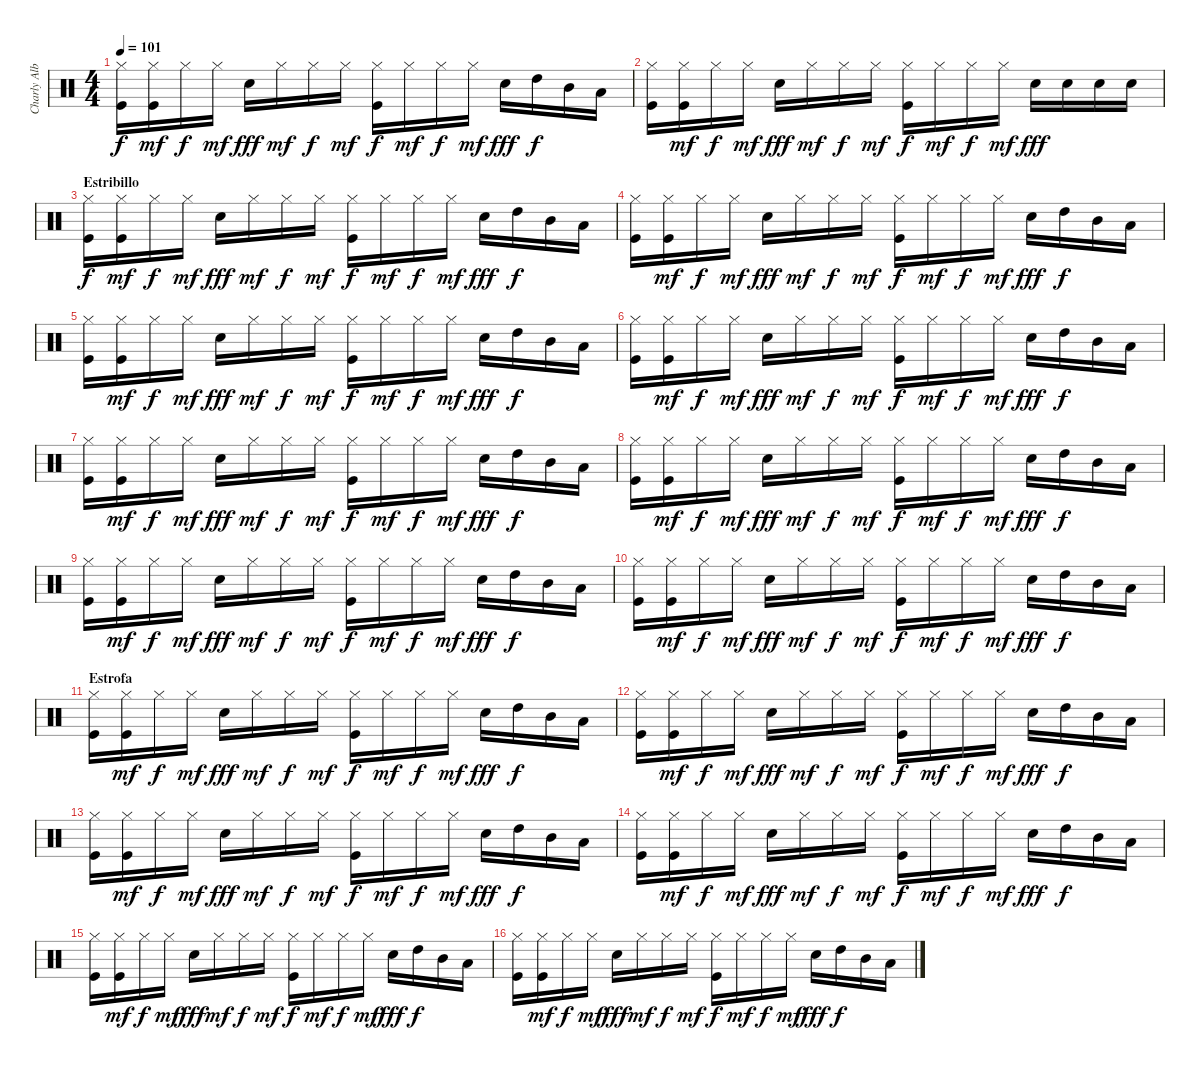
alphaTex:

\track ("Charly Alberti" "Charly Alb") {instrument percussion}
\staff {score}
\articulation defaults
\ts (4 4)
\tempo 101
\clef neutral
\ks c
("Kick (hit)" "Hi-Hat (closed)").16{dy f} ("Kick (hit)" "Hi-Hat (closed)").16{dy mf} "Hi-Hat (closed)".16{dy f} "Hi-Hat (closed)".16{dy mf} "Snare (hit) 2".16{dy fff} "Hi-Hat (closed)".16{dy mf} "Hi-Hat (closed)".16{dy f} "Hi-Hat (closed)".16{dy mf} ("Kick (hit)" "Hi-Hat (closed)").16{dy f} "Hi-Hat (closed)".16{dy mf} "Hi-Hat (closed)".16{dy f} "Hi-Hat (closed)".16{dy mf} "Snare (hit) 2".16{dy fff} "High Tom (hit)".16{dy f} "Mid Tom (hit)".16 "Low Tom (hit)".16 |
("Kick (hit)" "Hi-Hat (closed)").16 ("Kick (hit)" "Hi-Hat (closed)").16{dy mf} "Hi-Hat (closed)".16{dy f} "Hi-Hat (closed)".16{dy mf} "Snare (hit) 2".16{dy fff} "Hi-Hat (closed)".16{dy mf} "Hi-Hat (closed)".16{dy f} "Hi-Hat (closed)".16{dy mf} ("Kick (hit)" "Hi-Hat (closed)").16{dy f} "Hi-Hat (closed)".16{dy mf} "Hi-Hat (closed)".16{dy f} "Hi-Hat (closed)".16{dy mf} "Snare (hit) 2".16{dy fff} "Snare (hit) 2".16 "Snare (hit) 2".16 "Snare (hit) 2".16 |
\section ("" "Estribillo")
("Kick (hit)" "Hi-Hat (closed)").16{dy f} ("Kick (hit)" "Hi-Hat (closed)").16{dy mf} "Hi-Hat (closed)".16{dy f} "Hi-Hat (closed)".16{dy mf} "Snare (hit) 2".16{dy fff} "Hi-Hat (closed)".16{dy mf} "Hi-Hat (closed)".16{dy f} "Hi-Hat (closed)".16{dy mf} ("Kick (hit)" "Hi-Hat (closed)").16{dy f} "Hi-Hat (closed)".16{dy mf} "Hi-Hat (closed)".16{dy f} "Hi-Hat (closed)".16{dy mf} "Snare (hit) 2".16{dy fff} "High Tom (hit)".16{dy f} "Mid Tom (hit)".16 "Low Tom (hit)".16 |
("Kick (hit)" "Hi-Hat (closed)").16 ("Kick (hit)" "Hi-Hat (closed)").16{dy mf} "Hi-Hat (closed)".16{dy f} "Hi-Hat (closed)".16{dy mf} "Snare (hit) 2".16{dy fff} "Hi-Hat (closed)".16{dy mf} "Hi-Hat (closed)".16{dy f} "Hi-Hat (closed)".16{dy mf} ("Kick (hit)" "Hi-Hat (closed)").16{dy f} "Hi-Hat (closed)".16{dy mf} "Hi-Hat (closed)".16{dy f} "Hi-Hat (closed)".16{dy mf} "Snare (hit) 2".16{dy fff} "High Tom (hit)".16{dy f} "Mid Tom (hit)".16 "Low Tom (hit)".16 |
("Kick (hit)" "Hi-Hat (closed)").16 ("Kick (hit)" "Hi-Hat (closed)").16{dy mf} "Hi-Hat (closed)".16{dy f} "Hi-Hat (closed)".16{dy mf} "Snare (hit) 2".16{dy fff} "Hi-Hat (closed)".16{dy mf} "Hi-Hat (closed)".16{dy f} "Hi-Hat (closed)".16{dy mf} ("Kick (hit)" "Hi-Hat (closed)").16{dy f} "Hi-Hat (closed)".16{dy mf} "Hi-Hat (closed)".16{dy f} "Hi-Hat (closed)".16{dy mf} "Snare (hit) 2".16{dy fff} "High Tom (hit)".16{dy f} "Mid Tom (hit)".16 "Low Tom (hit)".16 |
("Kick (hit)" "Hi-Hat (closed)").16 ("Kick (hit)" "Hi-Hat (closed)").16{dy mf} "Hi-Hat (closed)".16{dy f} "Hi-Hat (closed)".16{dy mf} "Snare (hit) 2".16{dy fff} "Hi-Hat (closed)".16{dy mf} "Hi-Hat (closed)".16{dy f} "Hi-Hat (closed)".16{dy mf} ("Kick (hit)" "Hi-Hat (closed)").16{dy f} "Hi-Hat (closed)".16{dy mf} "Hi-Hat (closed)".16{dy f} "Hi-Hat (closed)".16{dy mf} "Snare (hit) 2".16{dy fff} "High Tom (hit)".16{dy f} "Mid Tom (hit)".16 "Low Tom (hit)".16 |
("Kick (hit)" "Hi-Hat (closed)").16 ("Kick (hit)" "Hi-Hat (closed)").16{dy mf} "Hi-Hat (closed)".16{dy f} "Hi-Hat (closed)".16{dy mf} "Snare (hit) 2".16{dy fff} "Hi-Hat (closed)".16{dy mf} "Hi-Hat (closed)".16{dy f} "Hi-Hat (closed)".16{dy mf} ("Kick (hit)" "Hi-Hat (closed)").16{dy f} "Hi-Hat (closed)".16{dy mf} "Hi-Hat (closed)".16{dy f} "Hi-Hat (closed)".16{dy mf} "Snare (hit) 2".16{dy fff} "High Tom (hit)".16{dy f} "Mid Tom (hit)".16 "Low Tom (hit)".16 |
("Kick (hit)" "Hi-Hat (closed)").16 ("Kick (hit)" "Hi-Hat (closed)").16{dy mf} "Hi-Hat (closed)".16{dy f} "Hi-Hat (closed)".16{dy mf} "Snare (hit) 2".16{dy fff} "Hi-Hat (closed)".16{dy mf} "Hi-Hat (closed)".16{dy f} "Hi-Hat (closed)".16{dy mf} ("Kick (hit)" "Hi-Hat (closed)").16{dy f} "Hi-Hat (closed)".16{dy mf} "Hi-Hat (closed)".16{dy f} "Hi-Hat (closed)".16{dy mf} "Snare (hit) 2".16{dy fff} "High Tom (hit)".16{dy f} "Mid Tom (hit)".16 "Low Tom (hit)".16 |
("Kick (hit)" "Hi-Hat (closed)").16 ("Kick (hit)" "Hi-Hat (closed)").16{dy mf} "Hi-Hat (closed)".16{dy f} "Hi-Hat (closed)".16{dy mf} "Snare (hit) 2".16{dy fff} "Hi-Hat (closed)".16{dy mf} "Hi-Hat (closed)".16{dy f} "Hi-Hat (closed)".16{dy mf} ("Kick (hit)" "Hi-Hat (closed)").16{dy f} "Hi-Hat (closed)".16{dy mf} "Hi-Hat (closed)".16{dy f} "Hi-Hat (closed)".16{dy mf} "Snare (hit) 2".16{dy fff} "High Tom (hit)".16{dy f} "Mid Tom (hit)".16 "Low Tom (hit)".16 |
("Kick (hit)" "Hi-Hat (closed)").16 ("Kick (hit)" "Hi-Hat (closed)").16{dy mf} "Hi-Hat (closed)".16{dy f} "Hi-Hat (closed)".16{dy mf} "Snare (hit) 2".16{dy fff} "Hi-Hat (closed)".16{dy mf} "Hi-Hat (closed)".16{dy f} "Hi-Hat (closed)".16{dy mf} ("Kick (hit)" "Hi-Hat (closed)").16{dy f} "Hi-Hat (closed)".16{dy mf} "Hi-Hat (closed)".16{dy f} "Hi-Hat (closed)".16{dy mf} "Snare (hit) 2".16{dy fff} "High Tom (hit)".16{dy f} "Mid Tom (hit)".16 "Low Tom (hit)".16 |
\section ("" "Estrofa")
("Kick (hit)" "Hi-Hat (closed)").16 ("Kick (hit)" "Hi-Hat (closed)").16{dy mf} "Hi-Hat (closed)".16{dy f} "Hi-Hat (closed)".16{dy mf} "Snare (hit) 2".16{dy fff} "Hi-Hat (closed)".16{dy mf} "Hi-Hat (closed)".16{dy f} "Hi-Hat (closed)".16{dy mf} ("Kick (hit)" "Hi-Hat (closed)").16{dy f} "Hi-Hat (closed)".16{dy mf} "Hi-Hat (closed)".16{dy f} "Hi-Hat (closed)".16{dy mf} "Snare (hit) 2".16{dy fff} "High Tom (hit)".16{dy f} "Mid Tom (hit)".16 "Low Tom (hit)".16 |
("Kick (hit)" "Hi-Hat (closed)").16 ("Kick (hit)" "Hi-Hat (closed)").16{dy mf} "Hi-Hat (closed)".16{dy f} "Hi-Hat (closed)".16{dy mf} "Snare (hit) 2".16{dy fff} "Hi-Hat (closed)".16{dy mf} "Hi-Hat (closed)".16{dy f} "Hi-Hat (closed)".16{dy mf} ("Kick (hit)" "Hi-Hat (closed)").16{dy f} "Hi-Hat (closed)".16{dy mf} "Hi-Hat (closed)".16{dy f} "Hi-Hat (closed)".16{dy mf} "Snare (hit) 2".16{dy fff} "High Tom (hit)".16{dy f} "Mid Tom (hit)".16 "Low Tom (hit)".16 |
("Kick (hit)" "Hi-Hat (closed)").16 ("Kick (hit)" "Hi-Hat (closed)").16{dy mf} "Hi-Hat (closed)".16{dy f} "Hi-Hat (closed)".16{dy mf} "Snare (hit) 2".16{dy fff} "Hi-Hat (closed)".16{dy mf} "Hi-Hat (closed)".16{dy f} "Hi-Hat (closed)".16{dy mf} ("Kick (hit)" "Hi-Hat (closed)").16{dy f} "Hi-Hat (closed)".16{dy mf} "Hi-Hat (closed)".16{dy f} "Hi-Hat (closed)".16{dy mf} "Snare (hit) 2".16{dy fff} "High Tom (hit)".16{dy f} "Mid Tom (hit)".16 "Low Tom (hit)".16 |
("Kick (hit)" "Hi-Hat (closed)").16 ("Kick (hit)" "Hi-Hat (closed)").16{dy mf} "Hi-Hat (closed)".16{dy f} "Hi-Hat (closed)".16{dy mf} "Snare (hit) 2".16{dy fff} "Hi-Hat (closed)".16{dy mf} "Hi-Hat (closed)".16{dy f} "Hi-Hat (closed)".16{dy mf} ("Kick (hit)" "Hi-Hat (closed)").16{dy f} "Hi-Hat (closed)".16{dy mf} "Hi-Hat (closed)".16{dy f} "Hi-Hat (closed)".16{dy mf} "Snare (hit) 2".16{dy fff} "High Tom (hit)".16{dy f} "Mid Tom (hit)".16 "Low Tom (hit)".16 |
("Kick (hit)" "Hi-Hat (closed)").16 ("Kick (hit)" "Hi-Hat (closed)").16{dy mf} "Hi-Hat (closed)".16{dy f} "Hi-Hat (closed)".16{dy mf} "Snare (hit) 2".16{dy fff} "Hi-Hat (closed)".16{dy mf} "Hi-Hat (closed)".16{dy f} "Hi-Hat (closed)".16{dy mf} ("Kick (hit)" "Hi-Hat (closed)").16{dy f} "Hi-Hat (closed)".16{dy mf} "Hi-Hat (closed)".16{dy f} "Hi-Hat (closed)".16{dy mf} "Snare (hit) 2".16{dy fff} "High Tom (hit)".16{dy f} "Mid Tom (hit)".16 "Low Tom (hit)".16 |
("Kick (hit)" "Hi-Hat (closed)").16 ("Kick (hit)" "Hi-Hat (closed)").16{dy mf} "Hi-Hat (closed)".16{dy f} "Hi-Hat (closed)".16{dy mf} "Snare (hit) 2".16{dy fff} "Hi-Hat (closed)".16{dy mf} "Hi-Hat (closed)".16{dy f} "Hi-Hat (closed)".16{dy mf} ("Kick (hit)" "Hi-Hat (closed)").16{dy f} "Hi-Hat (closed)".16{dy mf} "Hi-Hat (closed)".16{dy f} "Hi-Hat (closed)".16{dy mf} "Snare (hit) 2".16{dy fff} "High Tom (hit)".16{dy f} "Mid Tom (hit)".16 "Low Tom (hit)".16
